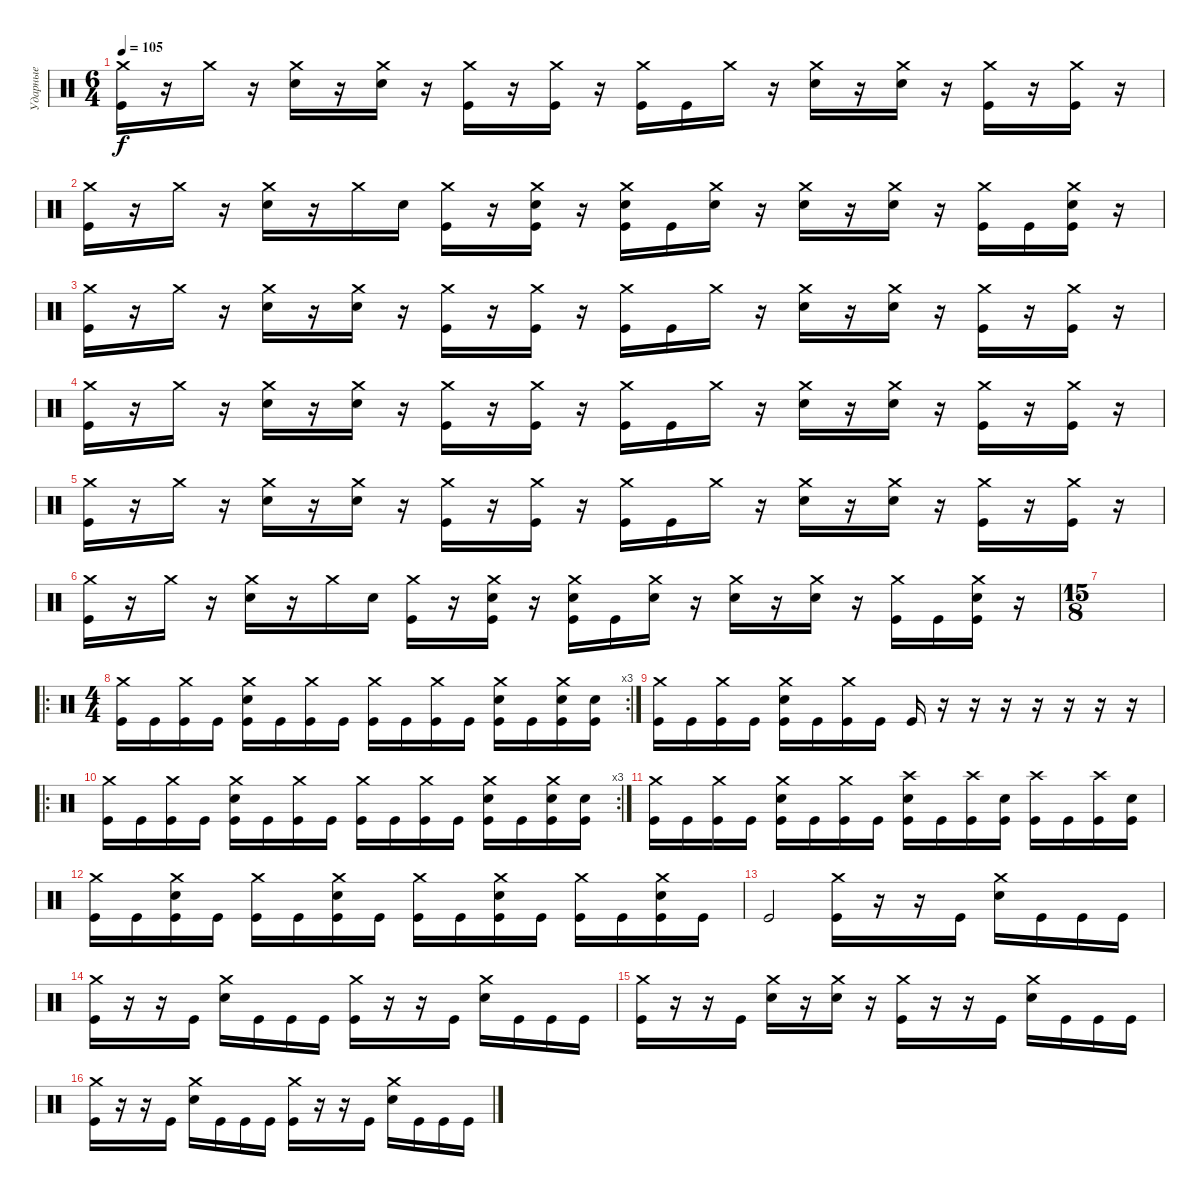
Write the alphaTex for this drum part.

\track ("Ударные" "Ударные") {instrument percussion}
\staff {score}
\articulation defaults
\ts (6 4)
\tempo 105
\clef neutral
\ks c
("Crash medium (hit)" "Kick (hit)").16{dy f} r.16 "Crash medium (hit)".16 r.16 ("Crash medium (hit)" "Electric Snare (hit)").16 r.16 ("Crash medium (hit)" "Electric Snare (hit)").16 r.16 ("Crash medium (hit)" "Kick (hit)").16 r.16 ("Crash medium (hit)" "Kick (hit)").16 r.16 ("Crash medium (hit)" "Kick (hit)").16 "Kick (hit)".16 "Crash medium (hit)".16 r.16 ("Crash medium (hit)" "Electric Snare (hit)").16 r.16 ("Crash medium (hit)" "Electric Snare (hit)").16 r.16 ("Crash medium (hit)" "Kick (hit)").16 r.16 ("Crash medium (hit)" "Kick (hit)").16 r.16 |
("Crash medium (hit)" "Kick (hit)").16 r.16 "Crash medium (hit)".16 r.16 ("Crash medium (hit)" "Electric Snare (hit)").16 r.16 "Crash medium (hit)".16 "Electric Snare (hit)".16 ("Crash medium (hit)" "Kick (hit)").16 r.16 ("Crash medium (hit)" "Electric Snare (hit)" "Kick (hit)").16 r.16 ("Crash medium (hit)" "Electric Snare (hit)" "Kick (hit)").16 "Kick (hit)".16 ("Crash medium (hit)" "Electric Snare (hit)").16 r.16 ("Crash medium (hit)" "Electric Snare (hit)").16 r.16 ("Crash medium (hit)" "Electric Snare (hit)").16 r.16 ("Crash medium (hit)" "Kick (hit)").16 "Kick (hit)".16 ("Crash medium (hit)" "Electric Snare (hit)" "Kick (hit)").16 r.16 |
("Crash medium (hit)" "Kick (hit)").16 r.16 "Crash medium (hit)".16 r.16 ("Crash medium (hit)" "Electric Snare (hit)").16 r.16 ("Crash medium (hit)" "Electric Snare (hit)").16 r.16 ("Crash medium (hit)" "Kick (hit)").16 r.16 ("Crash medium (hit)" "Kick (hit)").16 r.16 ("Crash medium (hit)" "Kick (hit)").16 "Kick (hit)".16 "Crash medium (hit)".16 r.16 ("Crash medium (hit)" "Electric Snare (hit)").16 r.16 ("Crash medium (hit)" "Electric Snare (hit)").16 r.16 ("Crash medium (hit)" "Kick (hit)").16 r.16 ("Crash medium (hit)" "Kick (hit)").16 r.16 |
("Crash medium (hit)" "Kick (hit)").16 r.16 "Crash medium (hit)".16 r.16 ("Crash medium (hit)" "Electric Snare (hit)").16 r.16 ("Crash medium (hit)" "Electric Snare (hit)").16 r.16 ("Crash medium (hit)" "Kick (hit)").16 r.16 ("Crash medium (hit)" "Kick (hit)").16 r.16 ("Crash medium (hit)" "Kick (hit)").16 "Kick (hit)".16 "Crash medium (hit)".16 r.16 ("Crash medium (hit)" "Electric Snare (hit)").16 r.16 ("Crash medium (hit)" "Electric Snare (hit)").16 r.16 ("Crash medium (hit)" "Kick (hit)").16 r.16 ("Crash medium (hit)" "Kick (hit)").16 r.16 |
("Crash medium (hit)" "Kick (hit)").16 r.16 "Crash medium (hit)".16 r.16 ("Crash medium (hit)" "Electric Snare (hit)").16 r.16 ("Crash medium (hit)" "Electric Snare (hit)").16 r.16 ("Crash medium (hit)" "Kick (hit)").16 r.16 ("Crash medium (hit)" "Kick (hit)").16 r.16 ("Crash medium (hit)" "Kick (hit)").16 "Kick (hit)".16 "Crash medium (hit)".16 r.16 ("Crash medium (hit)" "Electric Snare (hit)").16 r.16 ("Crash medium (hit)" "Electric Snare (hit)").16 r.16 ("Crash medium (hit)" "Kick (hit)").16 r.16 ("Crash medium (hit)" "Kick (hit)").16 r.16 |
("Crash medium (hit)" "Kick (hit)").16 r.16 "Crash medium (hit)".16 r.16 ("Crash medium (hit)" "Electric Snare (hit)").16 r.16 "Crash medium (hit)".16 "Electric Snare (hit)".16 ("Crash medium (hit)" "Kick (hit)").16 r.16 ("Crash medium (hit)" "Electric Snare (hit)" "Kick (hit)").16 r.16 ("Crash medium (hit)" "Electric Snare (hit)" "Kick (hit)").16 "Kick (hit)".16 ("Crash medium (hit)" "Electric Snare (hit)").16 r.16 ("Crash medium (hit)" "Electric Snare (hit)").16 r.16 ("Crash medium (hit)" "Electric Snare (hit)").16 r.16 ("Crash medium (hit)" "Kick (hit)").16 "Kick (hit)".16 ("Crash medium (hit)" "Electric Snare (hit)" "Kick (hit)").16 r.16 |
\ts (15 8)
|
\ro
\rc 3
\ts (4 4)
("Crash medium (hit)" "Kick (hit)").16 "Kick (hit)".16 ("Crash medium (hit)" "Kick (hit)").16 "Kick (hit)".16 ("Crash medium (hit)" "Electric Snare (hit)" "Kick (hit)").16 "Kick (hit)".16 ("Crash medium (hit)" "Kick (hit)").16 "Kick (hit)".16 ("Crash medium (hit)" "Kick (hit)").16 "Kick (hit)".16 ("Crash medium (hit)" "Kick (hit)").16 "Kick (hit)".16 ("Crash medium (hit)" "Electric Snare (hit)" "Kick (hit)").16 "Kick (hit)".16 ("Crash medium (hit)" "Electric Snare (hit)" "Kick (hit)").16 ("Electric Snare (hit)" "Kick (hit)").16 |
("Crash medium (hit)" "Kick (hit)").16 "Kick (hit)".16 ("Crash medium (hit)" "Kick (hit)").16 "Kick (hit)".16 ("Crash medium (hit)" "Electric Snare (hit)" "Kick (hit)").16 "Kick (hit)".16 ("Crash medium (hit)" "Kick (hit)").16 "Kick (hit)".16 "Kick (hit)".16 r.16 r.16 r.16 r.16 r.16 r.16 r.16 |
\ro
\rc 3
("Crash medium (hit)" "Kick (hit)").16 "Kick (hit)".16 ("Crash medium (hit)" "Kick (hit)").16 "Kick (hit)".16 ("Crash medium (hit)" "Electric Snare (hit)" "Kick (hit)").16 "Kick (hit)".16 ("Crash medium (hit)" "Kick (hit)").16 "Kick (hit)".16 ("Crash medium (hit)" "Kick (hit)").16 "Kick (hit)".16 ("Crash medium (hit)" "Kick (hit)").16 "Kick (hit)".16 ("Crash medium (hit)" "Electric Snare (hit)" "Kick (hit)").16 "Kick (hit)".16 ("Crash medium (hit)" "Electric Snare (hit)" "Kick (hit)").16 ("Electric Snare (hit)" "Kick (hit)").16 |
("Crash medium (hit)" "Kick (hit)").16 "Kick (hit)".16 ("Crash medium (hit)" "Kick (hit)").16 "Kick (hit)".16 ("Crash medium (hit)" "Electric Snare (hit)" "Kick (hit)").16 "Kick (hit)".16 ("Crash medium (hit)" "Kick (hit)").16 "Kick (hit)".16 ("Crash high (hit)" "Electric Snare (hit)" "Kick (hit)").16 "Kick (hit)".16 ("Crash high (hit)" "Kick (hit)").16 ("Electric Snare (hit)" "Kick (hit)").16 ("Crash high (hit)" "Kick (hit)").16 "Kick (hit)".16 ("Crash high (hit)" "Kick (hit)").16 ("Electric Snare (hit)" "Kick (hit)").16 |
("Crash medium (hit)" "Kick (hit)").16 "Kick (hit)".16 ("Crash medium (hit)" "Electric Snare (hit)" "Kick (hit)").16 "Kick (hit)".16 ("Crash medium (hit)" "Kick (hit)").16 "Kick (hit)".16 ("Crash medium (hit)" "Electric Snare (hit)" "Kick (hit)").16 "Kick (hit)".16 ("Crash medium (hit)" "Kick (hit)").16 "Kick (hit)".16 ("Crash medium (hit)" "Electric Snare (hit)" "Kick (hit)").16 "Kick (hit)".16 ("Crash medium (hit)" "Kick (hit)").16 "Kick (hit)".16 ("Crash medium (hit)" "Electric Snare (hit)" "Kick (hit)").16 "Kick (hit)".16 |
"Kick (hit)".2 ("Crash medium (hit)" "Kick (hit)").16 r.16 r.16 "Kick (hit)".16 ("Crash medium (hit)" "Electric Snare (hit)").16 "Kick (hit)".16 "Kick (hit)".16 "Kick (hit)".16 |
("Crash medium (hit)" "Kick (hit)").16 r.16 r.16 "Kick (hit)".16 ("Crash medium (hit)" "Electric Snare (hit)").16 "Kick (hit)".16 "Kick (hit)".16 "Kick (hit)".16 ("Crash medium (hit)" "Kick (hit)").16 r.16 r.16 "Kick (hit)".16 ("Crash medium (hit)" "Electric Snare (hit)").16 "Kick (hit)".16 "Kick (hit)".16 "Kick (hit)".16 |
("Crash medium (hit)" "Kick (hit)").16 r.16 r.16 "Kick (hit)".16 ("Crash medium (hit)" "Electric Snare (hit)").16 r.16 ("Crash medium (hit)" "Electric Snare (hit)").16 r.16 ("Crash medium (hit)" "Kick (hit)").16 r.16 r.16 "Kick (hit)".16 ("Crash medium (hit)" "Electric Snare (hit)").16 "Kick (hit)".16 "Kick (hit)".16 "Kick (hit)".16 |
("Crash medium (hit)" "Kick (hit)").16 r.16 r.16 "Kick (hit)".16 ("Crash medium (hit)" "Electric Snare (hit)").16 "Kick (hit)".16 "Kick (hit)".16 "Kick (hit)".16 ("Crash medium (hit)" "Kick (hit)").16 r.16 r.16 "Kick (hit)".16 ("Crash medium (hit)" "Electric Snare (hit)").16 "Kick (hit)".16 "Kick (hit)".16 "Kick (hit)".16
